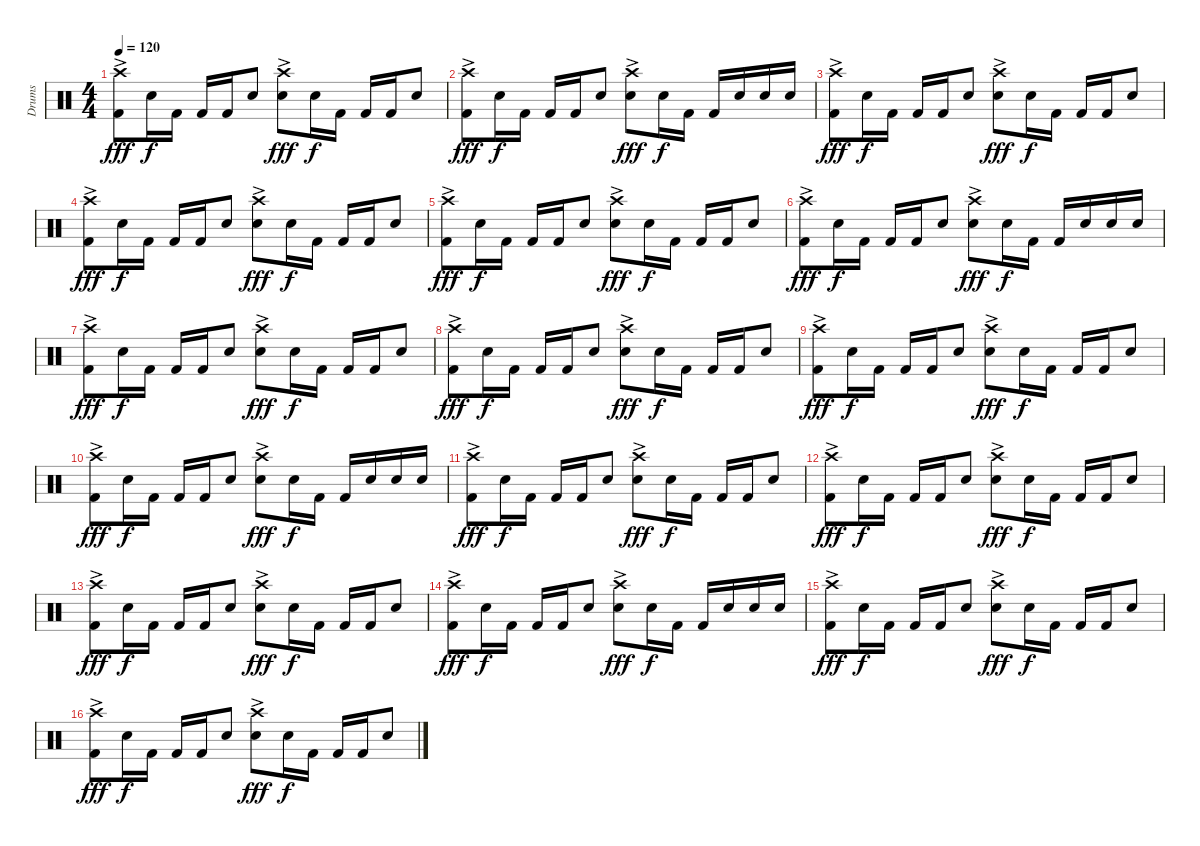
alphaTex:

\track ("Drums" "Drums") {instrument percussion}
\staff {score}
\articulation defaults
\ts (4 4)
\tempo 120
\clef neutral
\ks c
("Crash high (hit)"{ac} "Kick (hit) 2").8{dy fff} "Snare (hit) 2".16{dy f} "Kick (hit) 2".16 "Kick (hit) 2".16 "Kick (hit) 2".16 "Snare (hit) 2".8 ("Crash high (hit)"{ac} "Snare (hit) 2").8{dy fff} "Snare (hit) 2".16{dy f} "Kick (hit) 2".16 "Kick (hit) 2".16 "Kick (hit) 2".16 "Snare (hit) 2".8 |
("Crash high (hit)"{ac} "Kick (hit) 2").8{dy fff} "Snare (hit) 2".16{dy f} "Kick (hit) 2".16 "Kick (hit) 2".16 "Kick (hit) 2".16 "Snare (hit) 2".8 ("Crash high (hit)"{ac} "Snare (hit) 2").8{dy fff} "Snare (hit) 2".16{dy f} "Kick (hit) 2".16 "Kick (hit) 2".16 "Snare (hit) 2".16 "Snare (hit) 2".16 "Snare (hit) 2".16 |
("Crash high (hit)"{ac} "Kick (hit) 2").8{dy fff} "Snare (hit) 2".16{dy f} "Kick (hit) 2".16 "Kick (hit) 2".16 "Kick (hit) 2".16 "Snare (hit) 2".8 ("Crash high (hit)"{ac} "Snare (hit) 2").8{dy fff} "Snare (hit) 2".16{dy f} "Kick (hit) 2".16 "Kick (hit) 2".16 "Kick (hit) 2".16 "Snare (hit) 2".8 |
("Crash high (hit)"{ac} "Kick (hit) 2").8{dy fff} "Snare (hit) 2".16{dy f} "Kick (hit) 2".16 "Kick (hit) 2".16 "Kick (hit) 2".16 "Snare (hit) 2".8 ("Crash high (hit)"{ac} "Snare (hit) 2").8{dy fff} "Snare (hit) 2".16{dy f} "Kick (hit) 2".16 "Kick (hit) 2".16 "Kick (hit) 2".16 "Snare (hit) 2".8 |
("Crash high (hit)"{ac} "Kick (hit) 2").8{dy fff} "Snare (hit) 2".16{dy f} "Kick (hit) 2".16 "Kick (hit) 2".16 "Kick (hit) 2".16 "Snare (hit) 2".8 ("Crash high (hit)"{ac} "Snare (hit) 2").8{dy fff} "Snare (hit) 2".16{dy f} "Kick (hit) 2".16 "Kick (hit) 2".16 "Kick (hit) 2".16 "Snare (hit) 2".8 |
("Crash high (hit)"{ac} "Kick (hit) 2").8{dy fff} "Snare (hit) 2".16{dy f} "Kick (hit) 2".16 "Kick (hit) 2".16 "Kick (hit) 2".16 "Snare (hit) 2".8 ("Crash high (hit)"{ac} "Snare (hit) 2").8{dy fff} "Snare (hit) 2".16{dy f} "Kick (hit) 2".16 "Kick (hit) 2".16 "Snare (hit) 2".16 "Snare (hit) 2".16 "Snare (hit) 2".16 |
("Crash high (hit)"{ac} "Kick (hit) 2").8{dy fff} "Snare (hit) 2".16{dy f} "Kick (hit) 2".16 "Kick (hit) 2".16 "Kick (hit) 2".16 "Snare (hit) 2".8 ("Crash high (hit)"{ac} "Snare (hit) 2").8{dy fff} "Snare (hit) 2".16{dy f} "Kick (hit) 2".16 "Kick (hit) 2".16 "Kick (hit) 2".16 "Snare (hit) 2".8 |
("Crash high (hit)"{ac} "Kick (hit) 2").8{dy fff} "Snare (hit) 2".16{dy f} "Kick (hit) 2".16 "Kick (hit) 2".16 "Kick (hit) 2".16 "Snare (hit) 2".8 ("Crash high (hit)"{ac} "Snare (hit) 2").8{dy fff} "Snare (hit) 2".16{dy f} "Kick (hit) 2".16 "Kick (hit) 2".16 "Kick (hit) 2".16 "Snare (hit) 2".8 |
("Crash high (hit)"{ac} "Kick (hit) 2").8{dy fff} "Snare (hit) 2".16{dy f} "Kick (hit) 2".16 "Kick (hit) 2".16 "Kick (hit) 2".16 "Snare (hit) 2".8 ("Crash high (hit)"{ac} "Snare (hit) 2").8{dy fff} "Snare (hit) 2".16{dy f} "Kick (hit) 2".16 "Kick (hit) 2".16 "Kick (hit) 2".16 "Snare (hit) 2".8 |
("Crash high (hit)"{ac} "Kick (hit) 2").8{dy fff} "Snare (hit) 2".16{dy f} "Kick (hit) 2".16 "Kick (hit) 2".16 "Kick (hit) 2".16 "Snare (hit) 2".8 ("Crash high (hit)"{ac} "Snare (hit) 2").8{dy fff} "Snare (hit) 2".16{dy f} "Kick (hit) 2".16 "Kick (hit) 2".16 "Snare (hit) 2".16 "Snare (hit) 2".16 "Snare (hit) 2".16 |
("Crash high (hit)"{ac} "Kick (hit) 2").8{dy fff} "Snare (hit) 2".16{dy f} "Kick (hit) 2".16 "Kick (hit) 2".16 "Kick (hit) 2".16 "Snare (hit) 2".8 ("Crash high (hit)"{ac} "Snare (hit) 2").8{dy fff} "Snare (hit) 2".16{dy f} "Kick (hit) 2".16 "Kick (hit) 2".16 "Kick (hit) 2".16 "Snare (hit) 2".8 |
("Crash high (hit)"{ac} "Kick (hit) 2").8{dy fff} "Snare (hit) 2".16{dy f} "Kick (hit) 2".16 "Kick (hit) 2".16 "Kick (hit) 2".16 "Snare (hit) 2".8 ("Crash high (hit)"{ac} "Snare (hit) 2").8{dy fff} "Snare (hit) 2".16{dy f} "Kick (hit) 2".16 "Kick (hit) 2".16 "Kick (hit) 2".16 "Snare (hit) 2".8 |
("Crash high (hit)"{ac} "Kick (hit) 2").8{dy fff} "Snare (hit) 2".16{dy f} "Kick (hit) 2".16 "Kick (hit) 2".16 "Kick (hit) 2".16 "Snare (hit) 2".8 ("Crash high (hit)"{ac} "Snare (hit) 2").8{dy fff} "Snare (hit) 2".16{dy f} "Kick (hit) 2".16 "Kick (hit) 2".16 "Kick (hit) 2".16 "Snare (hit) 2".8 |
("Crash high (hit)"{ac} "Kick (hit) 2").8{dy fff} "Snare (hit) 2".16{dy f} "Kick (hit) 2".16 "Kick (hit) 2".16 "Kick (hit) 2".16 "Snare (hit) 2".8 ("Crash high (hit)"{ac} "Snare (hit) 2").8{dy fff} "Snare (hit) 2".16{dy f} "Kick (hit) 2".16 "Kick (hit) 2".16 "Snare (hit) 2".16 "Snare (hit) 2".16 "Snare (hit) 2".16 |
("Crash high (hit)"{ac} "Kick (hit) 2").8{dy fff} "Snare (hit) 2".16{dy f} "Kick (hit) 2".16 "Kick (hit) 2".16 "Kick (hit) 2".16 "Snare (hit) 2".8 ("Crash high (hit)"{ac} "Snare (hit) 2").8{dy fff} "Snare (hit) 2".16{dy f} "Kick (hit) 2".16 "Kick (hit) 2".16 "Kick (hit) 2".16 "Snare (hit) 2".8 |
("Crash high (hit)"{ac} "Kick (hit) 2").8{dy fff} "Snare (hit) 2".16{dy f} "Kick (hit) 2".16 "Kick (hit) 2".16 "Kick (hit) 2".16 "Snare (hit) 2".8 ("Crash high (hit)"{ac} "Snare (hit) 2").8{dy fff} "Snare (hit) 2".16{dy f} "Kick (hit) 2".16 "Kick (hit) 2".16 "Kick (hit) 2".16 "Snare (hit) 2".8
